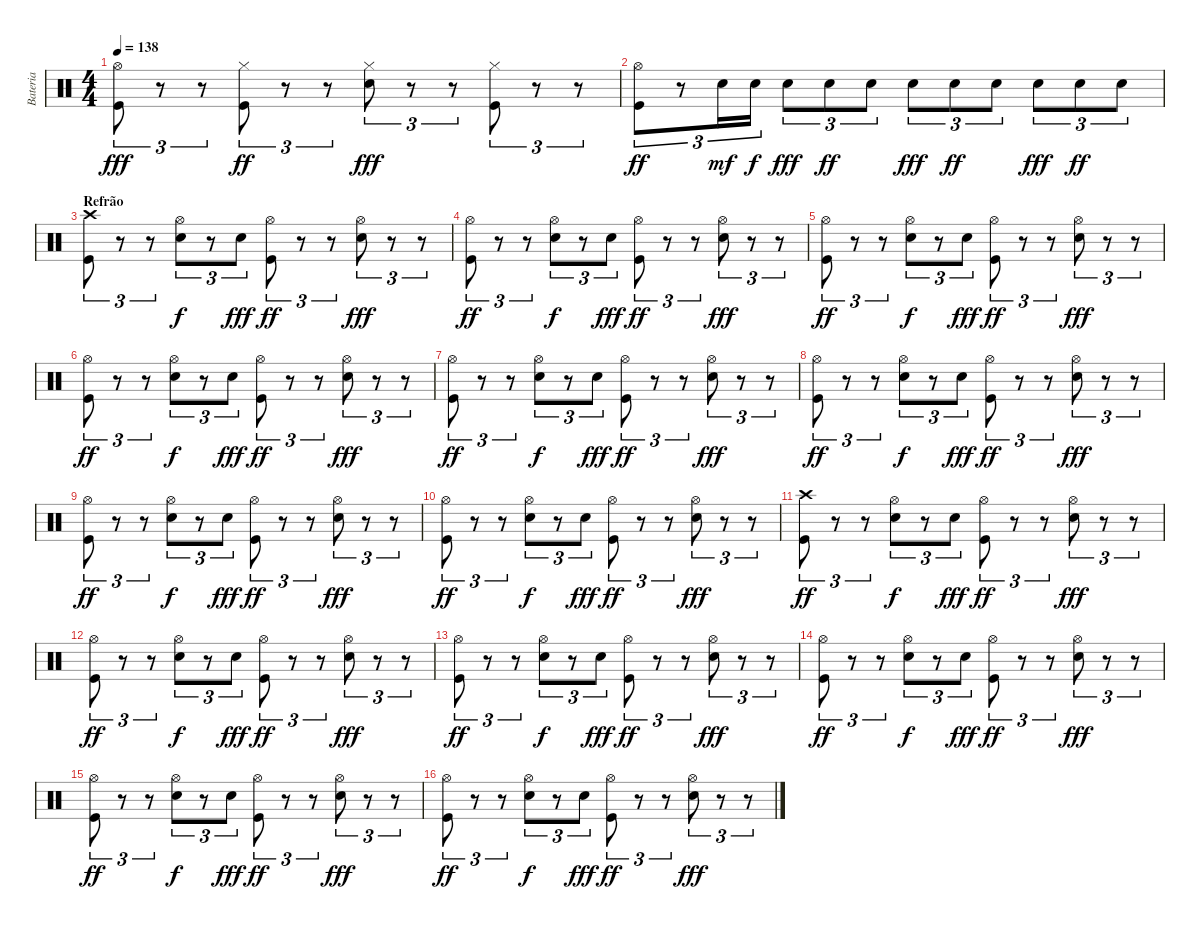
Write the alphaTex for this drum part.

\track ("Bateria" "Bateria") {instrument percussion}
\staff {score}
\articulation defaults
\ts (4 4)
\tempo 138
\clef neutral
\ks c
("Kick (hit)" "Hi-Hat (open)").8{tu (3 2) dy fff} r.8{tu (3 2)} r.8{tu (3 2)} ("Kick (hit)" "Hi-Hat (closed)").8{tu (3 2) dy ff} r.8{tu (3 2)} r.8{tu (3 2)} ("Electric Snare (hit)" "Hi-Hat (closed)").8{tu (3 2) dy fff} r.8{tu (3 2)} r.8{tu (3 2)} ("Kick (hit)" "Hi-Hat (closed)").8{tu (3 2)} r.8{tu (3 2)} r.8{tu (3 2)} |
("Kick (hit)" "Hi-Hat (open)").8{tu (3 2) dy ff} r.8{tu (3 2)} "Electric Snare (hit)".16{tu (3 2) dy mf} "Electric Snare (hit)".16{tu (3 2) dy f} "Electric Snare (hit)".8{tu (3 2) dy fff} "Electric Snare (hit)".8{tu (3 2) dy ff} "Electric Snare (hit)".8{tu (3 2)} "Electric Snare (hit)".8{tu (3 2) dy fff} "Electric Snare (hit)".8{tu (3 2) dy ff} "Electric Snare (hit)".8{tu (3 2)} "Electric Snare (hit)".8{tu (3 2) dy fff} "Electric Snare (hit)".8{tu (3 2) dy ff} "Electric Snare (hit)".8{tu (3 2)} |
\section ("" "Refrão")
("Kick (hit)" "Crash high (hit)").8{tu (3 2)} r.8{tu (3 2)} r.8{tu (3 2)} ("Electric Snare (hit)" "Hi-Hat (open)").8{tu (3 2) dy f} r.8{tu (3 2)} "Electric Snare (hit)".8{tu (3 2) dy fff} ("Kick (hit)" "Hi-Hat (open)").8{tu (3 2) dy ff} r.8{tu (3 2)} r.8{tu (3 2)} ("Electric Snare (hit)" "Hi-Hat (open)").8{tu (3 2) dy fff} r.8{tu (3 2)} r.8{tu (3 2)} |
("Kick (hit)" "Hi-Hat (open)").8{tu (3 2) dy ff} r.8{tu (3 2)} r.8{tu (3 2)} ("Electric Snare (hit)" "Hi-Hat (open)").8{tu (3 2) dy f} r.8{tu (3 2)} "Electric Snare (hit)".8{tu (3 2) dy fff} ("Kick (hit)" "Hi-Hat (open)").8{tu (3 2) dy ff} r.8{tu (3 2)} r.8{tu (3 2)} ("Electric Snare (hit)" "Hi-Hat (open)").8{tu (3 2) dy fff} r.8{tu (3 2)} r.8{tu (3 2)} |
("Kick (hit)" "Hi-Hat (open)").8{tu (3 2) dy ff} r.8{tu (3 2)} r.8{tu (3 2)} ("Electric Snare (hit)" "Hi-Hat (open)").8{tu (3 2) dy f} r.8{tu (3 2)} "Electric Snare (hit)".8{tu (3 2) dy fff} ("Kick (hit)" "Hi-Hat (open)").8{tu (3 2) dy ff} r.8{tu (3 2)} r.8{tu (3 2)} ("Electric Snare (hit)" "Hi-Hat (open)").8{tu (3 2) dy fff} r.8{tu (3 2)} r.8{tu (3 2)} |
("Kick (hit)" "Hi-Hat (open)").8{tu (3 2) dy ff} r.8{tu (3 2)} r.8{tu (3 2)} ("Electric Snare (hit)" "Hi-Hat (open)").8{tu (3 2) dy f} r.8{tu (3 2)} "Electric Snare (hit)".8{tu (3 2) dy fff} ("Kick (hit)" "Hi-Hat (open)").8{tu (3 2) dy ff} r.8{tu (3 2)} r.8{tu (3 2)} ("Electric Snare (hit)" "Hi-Hat (open)").8{tu (3 2) dy fff} r.8{tu (3 2)} r.8{tu (3 2)} |
("Kick (hit)" "Hi-Hat (open)").8{tu (3 2) dy ff} r.8{tu (3 2)} r.8{tu (3 2)} ("Electric Snare (hit)" "Hi-Hat (open)").8{tu (3 2) dy f} r.8{tu (3 2)} "Electric Snare (hit)".8{tu (3 2) dy fff} ("Kick (hit)" "Hi-Hat (open)").8{tu (3 2) dy ff} r.8{tu (3 2)} r.8{tu (3 2)} ("Electric Snare (hit)" "Hi-Hat (open)").8{tu (3 2) dy fff} r.8{tu (3 2)} r.8{tu (3 2)} |
("Kick (hit)" "Hi-Hat (open)").8{tu (3 2) dy ff} r.8{tu (3 2)} r.8{tu (3 2)} ("Electric Snare (hit)" "Hi-Hat (open)").8{tu (3 2) dy f} r.8{tu (3 2)} "Electric Snare (hit)".8{tu (3 2) dy fff} ("Kick (hit)" "Hi-Hat (open)").8{tu (3 2) dy ff} r.8{tu (3 2)} r.8{tu (3 2)} ("Electric Snare (hit)" "Hi-Hat (open)").8{tu (3 2) dy fff} r.8{tu (3 2)} r.8{tu (3 2)} |
("Kick (hit)" "Hi-Hat (open)").8{tu (3 2) dy ff} r.8{tu (3 2)} r.8{tu (3 2)} ("Electric Snare (hit)" "Hi-Hat (open)").8{tu (3 2) dy f} r.8{tu (3 2)} "Electric Snare (hit)".8{tu (3 2) dy fff} ("Kick (hit)" "Hi-Hat (open)").8{tu (3 2) dy ff} r.8{tu (3 2)} r.8{tu (3 2)} ("Electric Snare (hit)" "Hi-Hat (open)").8{tu (3 2) dy fff} r.8{tu (3 2)} r.8{tu (3 2)} |
("Kick (hit)" "Hi-Hat (open)").8{tu (3 2) dy ff} r.8{tu (3 2)} r.8{tu (3 2)} ("Electric Snare (hit)" "Hi-Hat (open)").8{tu (3 2) dy f} r.8{tu (3 2)} "Electric Snare (hit)".8{tu (3 2) dy fff} ("Kick (hit)" "Hi-Hat (open)").8{tu (3 2) dy ff} r.8{tu (3 2)} r.8{tu (3 2)} ("Electric Snare (hit)" "Hi-Hat (open)").8{tu (3 2) dy fff} r.8{tu (3 2)} r.8{tu (3 2)} |
("Kick (hit)" "Crash high (hit)").8{tu (3 2) dy ff} r.8{tu (3 2)} r.8{tu (3 2)} ("Electric Snare (hit)" "Hi-Hat (open)").8{tu (3 2) dy f} r.8{tu (3 2)} "Electric Snare (hit)".8{tu (3 2) dy fff} ("Kick (hit)" "Hi-Hat (open)").8{tu (3 2) dy ff} r.8{tu (3 2)} r.8{tu (3 2)} ("Electric Snare (hit)" "Hi-Hat (open)").8{tu (3 2) dy fff} r.8{tu (3 2)} r.8{tu (3 2)} |
("Kick (hit)" "Hi-Hat (open)").8{tu (3 2) dy ff} r.8{tu (3 2)} r.8{tu (3 2)} ("Electric Snare (hit)" "Hi-Hat (open)").8{tu (3 2) dy f} r.8{tu (3 2)} "Electric Snare (hit)".8{tu (3 2) dy fff} ("Kick (hit)" "Hi-Hat (open)").8{tu (3 2) dy ff} r.8{tu (3 2)} r.8{tu (3 2)} ("Electric Snare (hit)" "Hi-Hat (open)").8{tu (3 2) dy fff} r.8{tu (3 2)} r.8{tu (3 2)} |
("Kick (hit)" "Hi-Hat (open)").8{tu (3 2) dy ff} r.8{tu (3 2)} r.8{tu (3 2)} ("Electric Snare (hit)" "Hi-Hat (open)").8{tu (3 2) dy f} r.8{tu (3 2)} "Electric Snare (hit)".8{tu (3 2) dy fff} ("Kick (hit)" "Hi-Hat (open)").8{tu (3 2) dy ff} r.8{tu (3 2)} r.8{tu (3 2)} ("Electric Snare (hit)" "Hi-Hat (open)").8{tu (3 2) dy fff} r.8{tu (3 2)} r.8{tu (3 2)} |
("Kick (hit)" "Hi-Hat (open)").8{tu (3 2) dy ff} r.8{tu (3 2)} r.8{tu (3 2)} ("Electric Snare (hit)" "Hi-Hat (open)").8{tu (3 2) dy f} r.8{tu (3 2)} "Electric Snare (hit)".8{tu (3 2) dy fff} ("Kick (hit)" "Hi-Hat (open)").8{tu (3 2) dy ff} r.8{tu (3 2)} r.8{tu (3 2)} ("Electric Snare (hit)" "Hi-Hat (open)").8{tu (3 2) dy fff} r.8{tu (3 2)} r.8{tu (3 2)} |
("Kick (hit)" "Hi-Hat (open)").8{tu (3 2) dy ff} r.8{tu (3 2)} r.8{tu (3 2)} ("Electric Snare (hit)" "Hi-Hat (open)").8{tu (3 2) dy f} r.8{tu (3 2)} "Electric Snare (hit)".8{tu (3 2) dy fff} ("Kick (hit)" "Hi-Hat (open)").8{tu (3 2) dy ff} r.8{tu (3 2)} r.8{tu (3 2)} ("Electric Snare (hit)" "Hi-Hat (open)").8{tu (3 2) dy fff} r.8{tu (3 2)} r.8{tu (3 2)} |
("Kick (hit)" "Hi-Hat (open)").8{tu (3 2) dy ff} r.8{tu (3 2)} r.8{tu (3 2)} ("Electric Snare (hit)" "Hi-Hat (open)").8{tu (3 2) dy f} r.8{tu (3 2)} "Electric Snare (hit)".8{tu (3 2) dy fff} ("Kick (hit)" "Hi-Hat (open)").8{tu (3 2) dy ff} r.8{tu (3 2)} r.8{tu (3 2)} ("Electric Snare (hit)" "Hi-Hat (open)").8{tu (3 2) dy fff} r.8{tu (3 2)} r.8{tu (3 2)}
